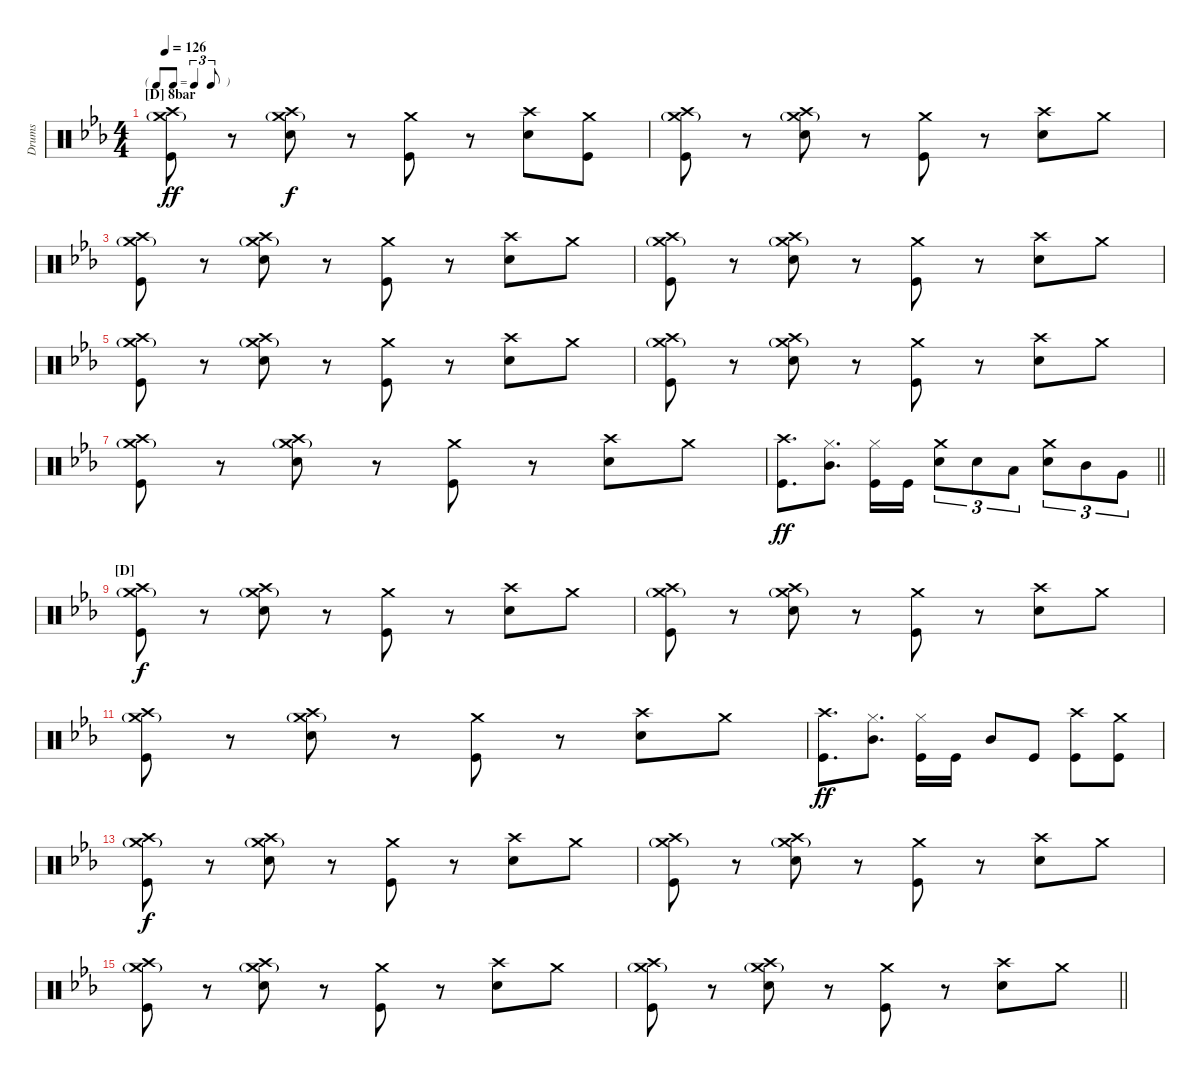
\bracketExtendMode nobrackets
\otherSystemsTrackNameOrientation horizontal
\defaultBarNumberDisplay FirstOfSystem
\track ("Drumkit" "Drums") {instrument percussion}
\staff {score}
\articulation defaults
\ts (4 4)
\tf triplet8th
\section ("D" "8bar")
\tempo 126
\clef neutral
\ks cminor
("Kick (hit)" "Crash medium (hit)"{g} "Crash high (hit)").8{dy ff} r.8 ("Snare (hit) 2" "Crash medium (hit)"{g} "Crash high (hit)").8{dy f} r.8 ("Kick (hit)" "Crash medium (hit)").8 r.8 ("Snare (hit) 2" "Crash high (hit)").8 ("Crash medium (hit)" "Kick (hit)").8 |
("Kick (hit)" "Crash medium (hit)"{g} "Crash high (hit)").8 r.8 ("Snare (hit) 2" "Crash medium (hit)"{g} "Crash high (hit)").8 r.8 ("Kick (hit)" "Crash medium (hit)").8 r.8 ("Snare (hit) 2" "Crash high (hit)").8 "Crash medium (hit)".8 |
("Kick (hit)" "Crash medium (hit)"{g} "Crash high (hit)").8 r.8 ("Snare (hit) 2" "Crash medium (hit)"{g} "Crash high (hit)").8 r.8 ("Kick (hit)" "Crash medium (hit)").8 r.8 ("Snare (hit) 2" "Crash high (hit)").8 "Crash medium (hit)".8 |
("Kick (hit)" "Crash medium (hit)"{g} "Crash high (hit)").8 r.8 ("Snare (hit) 2" "Crash medium (hit)"{g} "Crash high (hit)").8 r.8 ("Kick (hit)" "Crash medium (hit)").8 r.8 ("Snare (hit) 2" "Crash high (hit)").8 "Crash medium (hit)".8 |
("Kick (hit)" "Crash medium (hit)"{g} "Crash high (hit)").8 r.8 ("Snare (hit) 2" "Crash medium (hit)"{g} "Crash high (hit)").8 r.8 ("Kick (hit)" "Crash medium (hit)").8 r.8 ("Snare (hit) 2" "Crash high (hit)").8 "Crash medium (hit)".8 |
("Kick (hit)" "Crash medium (hit)"{g} "Crash high (hit)").8 r.8 ("Snare (hit) 2" "Crash medium (hit)"{g} "Crash high (hit)").8 r.8 ("Kick (hit)" "Crash medium (hit)").8 r.8 ("Snare (hit) 2" "Crash high (hit)").8 "Crash medium (hit)".8 |
("Kick (hit)" "Crash medium (hit)"{g} "Crash high (hit)").8 r.8 ("Snare (hit) 2" "Crash medium (hit)"{g} "Crash high (hit)").8 r.8 ("Kick (hit)" "Crash medium (hit)").8 r.8 ("Snare (hit) 2" "Crash high (hit)").8 "Crash medium (hit)".8 |
\barLineRight lightlight
("Kick (hit)" "Crash high (hit)").8{d dy ff} ("Mid Tom (hit)" "Hi-Hat (closed)").8{d} ("Kick (hit)" "Hi-Hat (closed)").16 "Kick (hit)".16 ("Snare (hit) 2" "Crash medium (hit)").8{tu (3 2)} "Snare (hit) 2".8{tu (3 2)} "Low Tom (hit)".8{tu (3 2)} ("Crash medium (hit)" "Snare (hit) 2").8{tu (3 2)} "Mid Tom (hit)".8{tu (3 2)} "Very Low Tom (hit)".8{tu (3 2)} |
\section ("D" "")
("Kick (hit)" "Crash medium (hit)"{g} "Crash high (hit)").8{dy f} r.8 ("Snare (hit) 2" "Crash medium (hit)"{g} "Crash high (hit)").8 r.8 ("Kick (hit)" "Crash medium (hit)").8 r.8 ("Snare (hit) 2" "Crash high (hit)").8 "Crash medium (hit)".8 |
("Kick (hit)" "Crash medium (hit)"{g} "Crash high (hit)").8 r.8 ("Snare (hit) 2" "Crash medium (hit)"{g} "Crash high (hit)").8 r.8 ("Kick (hit)" "Crash medium (hit)").8 r.8 ("Snare (hit) 2" "Crash high (hit)").8 "Crash medium (hit)".8 |
("Kick (hit)" "Crash medium (hit)"{g} "Crash high (hit)").8 r.8 ("Snare (hit) 2" "Crash medium (hit)"{g} "Crash high (hit)").8 r.8 ("Kick (hit)" "Crash medium (hit)").8 r.8 ("Snare (hit) 2" "Crash high (hit)").8 "Crash medium (hit)".8 |
("Kick (hit)" "Crash high (hit)").8{d dy ff} ("Mid Tom (hit)" "Hi-Hat (closed)").8{d} ("Kick (hit)" "Hi-Hat (closed)").16 "Kick (hit)".16 "Mid Tom (hit)".8 "Kick (hit)".8 ("Kick (hit)" "Crash high (hit)").8 ("Kick (hit)" "Crash medium (hit)").8 |
("Kick (hit)" "Crash medium (hit)"{g} "Crash high (hit)").8{dy f} r.8 ("Snare (hit) 2" "Crash medium (hit)"{g} "Crash high (hit)").8 r.8 ("Kick (hit)" "Crash medium (hit)").8 r.8 ("Snare (hit) 2" "Crash high (hit)").8 "Crash medium (hit)".8 |
("Kick (hit)" "Crash medium (hit)"{g} "Crash high (hit)").8 r.8 ("Snare (hit) 2" "Crash medium (hit)"{g} "Crash high (hit)").8 r.8 ("Kick (hit)" "Crash medium (hit)").8 r.8 ("Snare (hit) 2" "Crash high (hit)").8 "Crash medium (hit)".8 |
("Kick (hit)" "Crash medium (hit)"{g} "Crash high (hit)").8 r.8 ("Snare (hit) 2" "Crash medium (hit)"{g} "Crash high (hit)").8 r.8 ("Kick (hit)" "Crash medium (hit)").8 r.8 ("Snare (hit) 2" "Crash high (hit)").8 "Crash medium (hit)".8 |
\barLineRight lightlight
("Kick (hit)" "Crash medium (hit)"{g} "Crash high (hit)").8 r.8 ("Snare (hit) 2" "Crash medium (hit)"{g} "Crash high (hit)").8 r.8 ("Kick (hit)" "Crash medium (hit)").8 r.8 ("Snare (hit) 2" "Crash high (hit)").8 "Crash medium (hit)".8
